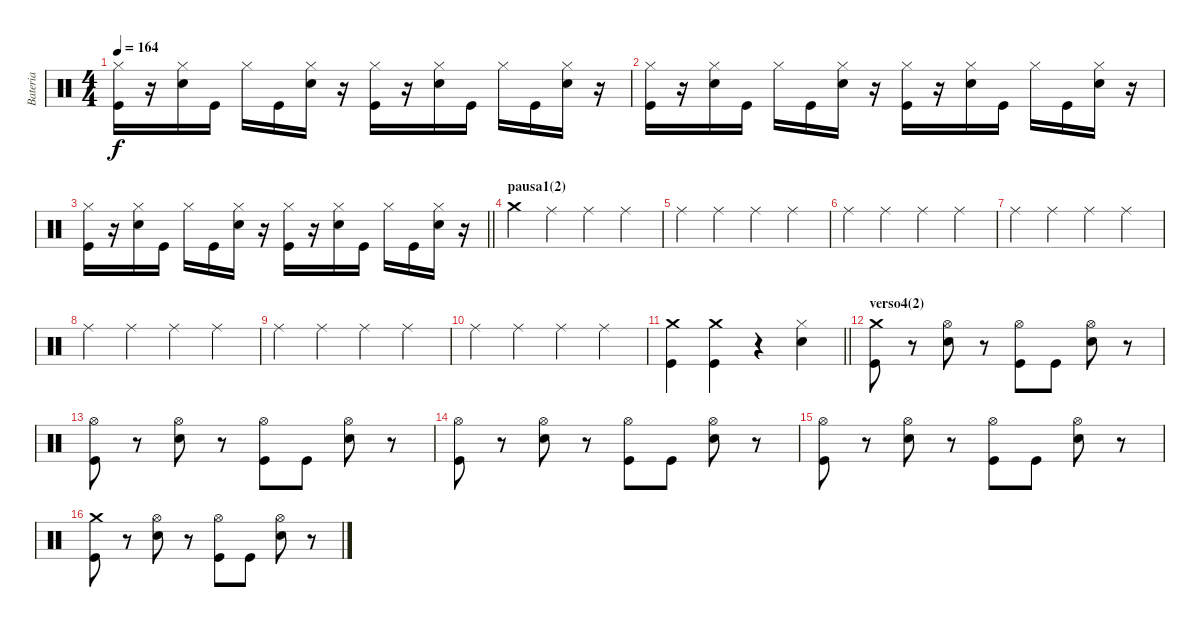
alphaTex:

\track ("Bateria" "Bateria") {instrument percussion}
\staff {score}
\articulation defaults
\ts (4 4)
\tempo 164
\clef neutral
\ks c
("Hi-Hat (closed)" "Kick (hit)").16{dy f} r.16 ("Hi-Hat (closed)" "Snare (hit) 2").16 "Kick (hit)".16 "Hi-Hat (closed)".16 "Kick (hit)".16 ("Hi-Hat (closed)" "Snare (hit) 2").16 r.16 ("Hi-Hat (closed)" "Kick (hit)").16 r.16 ("Hi-Hat (closed)" "Snare (hit) 2").16 "Kick (hit)".16 "Hi-Hat (closed)".16 "Kick (hit)".16 ("Hi-Hat (closed)" "Snare (hit) 2").16 r.16 |
("Hi-Hat (closed)" "Kick (hit)").16 r.16 ("Hi-Hat (closed)" "Snare (hit) 2").16 "Kick (hit)".16 "Hi-Hat (closed)".16 "Kick (hit)".16 ("Hi-Hat (closed)" "Snare (hit) 2").16 r.16 ("Hi-Hat (closed)" "Kick (hit)").16 r.16 ("Hi-Hat (closed)" "Snare (hit) 2").16 "Kick (hit)".16 "Hi-Hat (closed)".16 "Kick (hit)".16 ("Hi-Hat (closed)" "Snare (hit) 2").16 r.16 |
\barLineRight lightlight
("Hi-Hat (closed)" "Kick (hit)").16 r.16 ("Hi-Hat (closed)" "Snare (hit) 2").16 "Kick (hit)".16 "Hi-Hat (closed)".16 "Kick (hit)".16 ("Hi-Hat (closed)" "Snare (hit) 2").16 r.16 ("Hi-Hat (closed)" "Kick (hit)").16 r.16 ("Hi-Hat (closed)" "Snare (hit) 2").16 "Kick (hit)".16 "Hi-Hat (closed)".16 "Kick (hit)".16 ("Hi-Hat (closed)" "Snare (hit) 2").16 r.16 |
\section ("" "pausa1(2)")
"Crash medium (hit)".4 "Ride (middle)".4 "Ride (middle)".4 "Ride (middle)".4 |
"Ride (middle)".4 "Ride (middle)".4 "Ride (middle)".4 "Ride (middle)".4 |
"Ride (middle)".4 "Ride (middle)".4 "Ride (middle)".4 "Ride (middle)".4 |
"Ride (middle)".4 "Ride (middle)".4 "Ride (middle)".4 "Ride (middle)".4 |
"Ride (middle)".4 "Ride (middle)".4 "Ride (middle)".4 "Ride (middle)".4 |
"Ride (middle)".4 "Ride (middle)".4 "Ride (middle)".4 "Ride (middle)".4 |
"Ride (middle)".4 "Ride (middle)".4 "Ride (middle)".4 "Ride (middle)".4 |
\barLineRight lightlight
("Crash medium (hit)" "Kick (hit)").4 ("Crash medium (hit)" "Kick (hit)").4 r.4 ("Hi-Hat (closed)" "Snare (hit) 2").4 |
\section ("" "verso4(2)")
("Crash medium (hit)" "Kick (hit)").8 r.8 ("Hi-Hat (open)" "Snare (hit) 2").8 r.8 ("Hi-Hat (open)" "Kick (hit)").8 "Kick (hit)".8 ("Hi-Hat (open)" "Snare (hit) 2").8 r.8 |
("Hi-Hat (open)" "Kick (hit)").8 r.8 ("Hi-Hat (open)" "Snare (hit) 2").8 r.8 ("Hi-Hat (open)" "Kick (hit)").8 "Kick (hit)".8 ("Hi-Hat (open)" "Snare (hit) 2").8 r.8 |
("Hi-Hat (open)" "Kick (hit)").8 r.8 ("Hi-Hat (open)" "Snare (hit) 2").8 r.8 ("Hi-Hat (open)" "Kick (hit)").8 "Kick (hit)".8 ("Hi-Hat (open)" "Snare (hit) 2").8 r.8 |
("Hi-Hat (open)" "Kick (hit)").8 r.8 ("Hi-Hat (open)" "Snare (hit) 2").8 r.8 ("Hi-Hat (open)" "Kick (hit)").8 "Kick (hit)".8 ("Hi-Hat (open)" "Snare (hit) 2").8 r.8 |
("Crash medium (hit)" "Kick (hit)").8 r.8 ("Hi-Hat (open)" "Snare (hit) 2").8 r.8 ("Hi-Hat (open)" "Kick (hit)").8 "Kick (hit)".8 ("Hi-Hat (open)" "Snare (hit) 2").8 r.8
